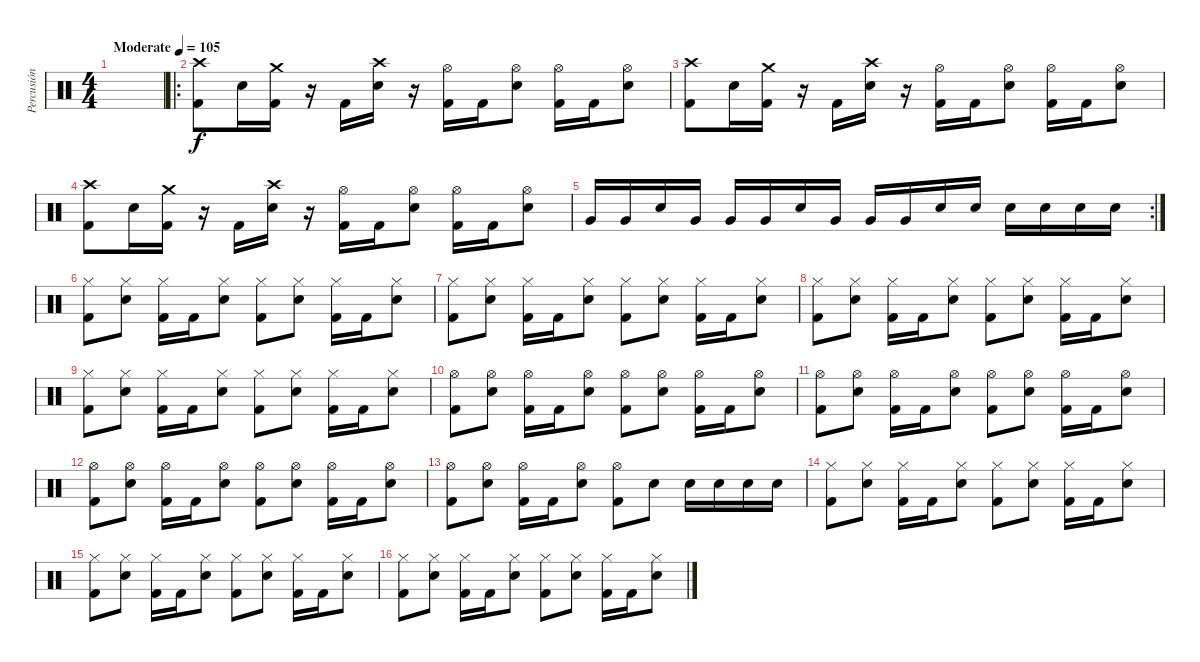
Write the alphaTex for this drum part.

\track ("Percusión" "Percusión") {instrument percussion}
\staff {score}
\articulation defaults
\ts (4 4)
\tempo (105 "Moderate")
\clef neutral
\ks c
|
\ro
("Crash high (hit)" "Kick (hit) 2").8 "Electric Snare (hit)".16 ("Crash medium (hit)" "Kick (hit) 2").16 r.16 "Kick (hit) 2".16 ("Crash high (hit)" "Electric Snare (hit)").16 r.16 ("Hi-Hat (open)" "Kick (hit) 2").16 "Kick (hit) 2".16 ("Hi-Hat (open)" "Electric Snare (hit)").8 ("Hi-Hat (open)" "Kick (hit) 2").16 "Kick (hit) 2".16 ("Hi-Hat (open)" "Electric Snare (hit)").8 |
("Crash high (hit)" "Kick (hit) 2").8 "Electric Snare (hit)".16 ("Crash medium (hit)" "Kick (hit) 2").16 r.16 "Kick (hit) 2".16 ("Crash high (hit)" "Electric Snare (hit)").16 r.16 ("Hi-Hat (open)" "Kick (hit) 2").16 "Kick (hit) 2".16 ("Hi-Hat (open)" "Electric Snare (hit)").8 ("Hi-Hat (open)" "Kick (hit) 2").16 "Kick (hit) 2".16 ("Hi-Hat (open)" "Electric Snare (hit)").8 |
("Crash high (hit)" "Kick (hit) 2").8 "Electric Snare (hit)".16 ("Crash medium (hit)" "Kick (hit) 2").16 r.16 "Kick (hit) 2".16 ("Crash high (hit)" "Electric Snare (hit)").16 r.16 ("Hi-Hat (open)" "Kick (hit) 2").16 "Kick (hit) 2".16 ("Hi-Hat (open)" "Electric Snare (hit)").8 ("Hi-Hat (open)" "Kick (hit) 2").16 "Kick (hit) 2".16 ("Hi-Hat (open)" "Electric Snare (hit)").8 |
\rc 2 "Very Low Tom (hit)".16 "Very Low Tom (hit)".16 "Electric Snare (hit)".16 "Very Low Tom (hit)".16 "Very Low Tom (hit)".16 "Very Low Tom (hit)".16 "Electric Snare (hit)".16 "Very Low Tom (hit)".16 "Very Low Tom (hit)".16 "Very Low Tom (hit)".16 "Electric Snare (hit)".16 "Electric Snare (hit)".16 "Electric Snare (hit)".16 "Electric Snare (hit)".16 "Electric Snare (hit)".16 "Electric Snare (hit)".16
|
("Hi-Hat (closed)" "Kick (hit) 2").8 ("Hi-Hat (closed)" "Electric Snare (hit)").8 ("Hi-Hat (closed)" "Kick (hit) 2").16 "Kick (hit) 2".16 ("Hi-Hat (closed)" "Electric Snare (hit)").8 ("Hi-Hat (closed)" "Kick (hit) 2").8 ("Hi-Hat (closed)" "Electric Snare (hit)").8 ("Hi-Hat (closed)" "Kick (hit) 2").16 "Kick (hit) 2".16 ("Hi-Hat (closed)" "Electric Snare (hit)").8 |
("Hi-Hat (closed)" "Kick (hit) 2").8 ("Hi-Hat (closed)" "Electric Snare (hit)").8 ("Hi-Hat (closed)" "Kick (hit) 2").16 "Kick (hit) 2".16 ("Hi-Hat (closed)" "Electric Snare (hit)").8 ("Hi-Hat (closed)" "Kick (hit) 2").8 ("Hi-Hat (closed)" "Electric Snare (hit)").8 ("Hi-Hat (closed)" "Kick (hit) 2").16 "Kick (hit) 2".16 ("Hi-Hat (closed)" "Electric Snare (hit)").8 |
("Hi-Hat (closed)" "Kick (hit) 2").8 ("Hi-Hat (closed)" "Electric Snare (hit)").8 ("Hi-Hat (closed)" "Kick (hit) 2").16 "Kick (hit) 2".16 ("Hi-Hat (closed)" "Electric Snare (hit)").8 ("Hi-Hat (closed)" "Kick (hit) 2").8 ("Hi-Hat (closed)" "Electric Snare (hit)").8 ("Hi-Hat (closed)" "Kick (hit) 2").16 "Kick (hit) 2".16 ("Hi-Hat (closed)" "Electric Snare (hit)").8 |
("Hi-Hat (closed)" "Kick (hit) 2").8 ("Hi-Hat (closed)" "Electric Snare (hit)").8 ("Hi-Hat (closed)" "Kick (hit) 2").16 "Kick (hit) 2".16 ("Hi-Hat (closed)" "Electric Snare (hit)").8 ("Hi-Hat (closed)" "Kick (hit) 2").8 ("Hi-Hat (closed)" "Electric Snare (hit)").8 ("Hi-Hat (closed)" "Kick (hit) 2").16 "Kick (hit) 2".16 ("Hi-Hat (closed)" "Electric Snare (hit)").8 |
("Hi-Hat (open)" "Kick (hit) 2").8 ("Hi-Hat (open)" "Electric Snare (hit)").8 ("Hi-Hat (open)" "Kick (hit) 2").16 "Kick (hit) 2".16 ("Hi-Hat (open)" "Electric Snare (hit)").8 ("Hi-Hat (open)" "Kick (hit) 2").8 ("Hi-Hat (open)" "Electric Snare (hit)").8 ("Hi-Hat (open)" "Kick (hit) 2").16 "Kick (hit) 2".16 ("Hi-Hat (open)" "Electric Snare (hit)").8 |
("Hi-Hat (open)" "Kick (hit) 2").8 ("Hi-Hat (open)" "Electric Snare (hit)").8 ("Hi-Hat (open)" "Kick (hit) 2").16 "Kick (hit) 2".16 ("Hi-Hat (open)" "Electric Snare (hit)").8 ("Hi-Hat (open)" "Kick (hit) 2").8 ("Hi-Hat (open)" "Electric Snare (hit)").8 ("Hi-Hat (open)" "Kick (hit) 2").16 "Kick (hit) 2".16 ("Hi-Hat (open)" "Electric Snare (hit)").8 |
("Hi-Hat (open)" "Kick (hit) 2").8 ("Hi-Hat (open)" "Electric Snare (hit)").8 ("Hi-Hat (open)" "Kick (hit) 2").16 "Kick (hit) 2".16 ("Hi-Hat (open)" "Electric Snare (hit)").8 ("Hi-Hat (open)" "Kick (hit) 2").8 ("Hi-Hat (open)" "Electric Snare (hit)").8 ("Hi-Hat (open)" "Kick (hit) 2").16 "Kick (hit) 2".16 ("Hi-Hat (open)" "Electric Snare (hit)").8 |
("Hi-Hat (open)" "Kick (hit) 2").8 ("Hi-Hat (open)" "Electric Snare (hit)").8 ("Hi-Hat (open)" "Kick (hit) 2").16 "Kick (hit) 2".16 ("Hi-Hat (open)" "Electric Snare (hit)").8 ("Hi-Hat (open)" "Kick (hit) 2").8 "Electric Snare (hit)".8 "Electric Snare (hit)".16 "Electric Snare (hit)".16 "Electric Snare (hit)".16 "Electric Snare (hit)".16 |
("Hi-Hat (closed)" "Kick (hit) 2").8 ("Hi-Hat (closed)" "Electric Snare (hit)").8 ("Hi-Hat (closed)" "Kick (hit) 2").16 "Kick (hit) 2".16 ("Hi-Hat (closed)" "Electric Snare (hit)").8 ("Hi-Hat (closed)" "Kick (hit) 2").8 ("Hi-Hat (closed)" "Electric Snare (hit)").8 ("Hi-Hat (closed)" "Kick (hit) 2").16 "Kick (hit) 2".16 ("Hi-Hat (closed)" "Electric Snare (hit)").8 |
("Hi-Hat (closed)" "Kick (hit) 2").8 ("Hi-Hat (closed)" "Electric Snare (hit)").8 ("Hi-Hat (closed)" "Kick (hit) 2").16 "Kick (hit) 2".16 ("Hi-Hat (closed)" "Electric Snare (hit)").8 ("Hi-Hat (closed)" "Kick (hit) 2").8 ("Hi-Hat (closed)" "Electric Snare (hit)").8 ("Hi-Hat (closed)" "Kick (hit) 2").16 "Kick (hit) 2".16 ("Hi-Hat (closed)" "Electric Snare (hit)").8 |
("Hi-Hat (closed)" "Kick (hit) 2").8 ("Hi-Hat (closed)" "Electric Snare (hit)").8 ("Hi-Hat (closed)" "Kick (hit) 2").16 "Kick (hit) 2".16 ("Hi-Hat (closed)" "Electric Snare (hit)").8 ("Hi-Hat (closed)" "Kick (hit) 2").8 ("Hi-Hat (closed)" "Electric Snare (hit)").8 ("Hi-Hat (closed)" "Kick (hit) 2").16 "Kick (hit) 2".16 ("Hi-Hat (closed)" "Electric Snare (hit)").8
